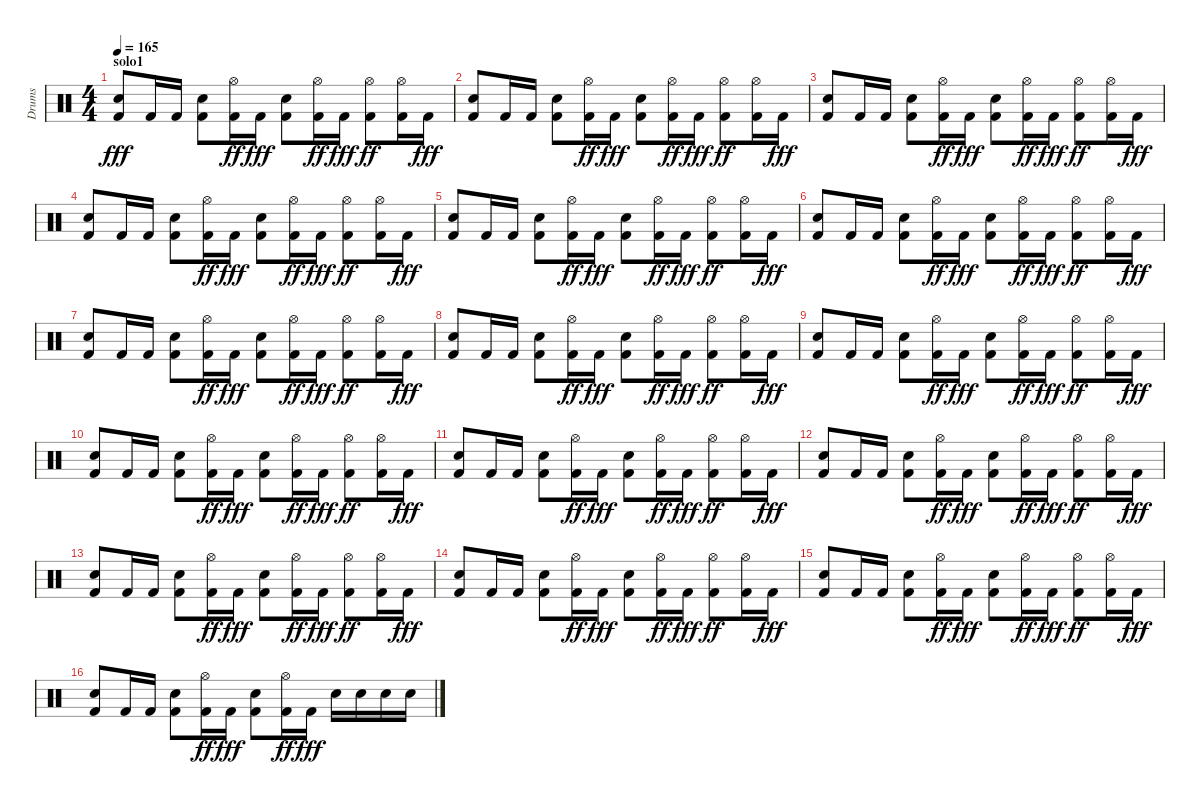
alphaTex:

\track ("Drums" "Drums") {instrument percussion}
\staff {score}
\articulation defaults
\ts (4 4)
\section ("" "solo1")
\tempo 165
\clef neutral
\ks c
("Kick (hit) 2" "Electric Snare (hit)").8{dy fff} "Kick (hit) 2".16 "Kick (hit) 2".16 ("Kick (hit) 2" "Electric Snare (hit)").8 ("Kick (hit) 2" "Hi-Hat (open)").16{dy ff} "Kick (hit) 2".16{dy fff} ("Kick (hit) 2" "Electric Snare (hit)").8 ("Kick (hit) 2" "Hi-Hat (open)").16{dy ff} "Kick (hit) 2".16{dy fff} ("Kick (hit) 2" "Hi-Hat (open)").8{dy ff} ("Kick (hit) 2" "Hi-Hat (open)").16 "Kick (hit) 2".16{dy fff} |
("Kick (hit) 2" "Electric Snare (hit)").8 "Kick (hit) 2".16 "Kick (hit) 2".16 ("Kick (hit) 2" "Electric Snare (hit)").8 ("Kick (hit) 2" "Hi-Hat (open)").16{dy ff} "Kick (hit) 2".16{dy fff} ("Kick (hit) 2" "Electric Snare (hit)").8 ("Kick (hit) 2" "Hi-Hat (open)").16{dy ff} "Kick (hit) 2".16{dy fff} ("Kick (hit) 2" "Hi-Hat (open)").8{dy ff} ("Kick (hit) 2" "Hi-Hat (open)").16 "Kick (hit) 2".16{dy fff} |
("Kick (hit) 2" "Electric Snare (hit)").8 "Kick (hit) 2".16 "Kick (hit) 2".16 ("Kick (hit) 2" "Electric Snare (hit)").8 ("Kick (hit) 2" "Hi-Hat (open)").16{dy ff} "Kick (hit) 2".16{dy fff} ("Kick (hit) 2" "Electric Snare (hit)").8 ("Kick (hit) 2" "Hi-Hat (open)").16{dy ff} "Kick (hit) 2".16{dy fff} ("Kick (hit) 2" "Hi-Hat (open)").8{dy ff} ("Kick (hit) 2" "Hi-Hat (open)").16 "Kick (hit) 2".16{dy fff} |
("Kick (hit) 2" "Electric Snare (hit)").8 "Kick (hit) 2".16 "Kick (hit) 2".16 ("Kick (hit) 2" "Electric Snare (hit)").8 ("Kick (hit) 2" "Hi-Hat (open)").16{dy ff} "Kick (hit) 2".16{dy fff} ("Kick (hit) 2" "Electric Snare (hit)").8 ("Kick (hit) 2" "Hi-Hat (open)").16{dy ff} "Kick (hit) 2".16{dy fff} ("Kick (hit) 2" "Hi-Hat (open)").8{dy ff} ("Kick (hit) 2" "Hi-Hat (open)").16 "Kick (hit) 2".16{dy fff} |
("Kick (hit) 2" "Electric Snare (hit)").8 "Kick (hit) 2".16 "Kick (hit) 2".16 ("Kick (hit) 2" "Electric Snare (hit)").8 ("Kick (hit) 2" "Hi-Hat (open)").16{dy ff} "Kick (hit) 2".16{dy fff} ("Kick (hit) 2" "Electric Snare (hit)").8 ("Kick (hit) 2" "Hi-Hat (open)").16{dy ff} "Kick (hit) 2".16{dy fff} ("Kick (hit) 2" "Hi-Hat (open)").8{dy ff} ("Kick (hit) 2" "Hi-Hat (open)").16 "Kick (hit) 2".16{dy fff} |
("Kick (hit) 2" "Electric Snare (hit)").8 "Kick (hit) 2".16 "Kick (hit) 2".16 ("Kick (hit) 2" "Electric Snare (hit)").8 ("Kick (hit) 2" "Hi-Hat (open)").16{dy ff} "Kick (hit) 2".16{dy fff} ("Kick (hit) 2" "Electric Snare (hit)").8 ("Kick (hit) 2" "Hi-Hat (open)").16{dy ff} "Kick (hit) 2".16{dy fff} ("Kick (hit) 2" "Hi-Hat (open)").8{dy ff} ("Kick (hit) 2" "Hi-Hat (open)").16 "Kick (hit) 2".16{dy fff} |
("Kick (hit) 2" "Electric Snare (hit)").8 "Kick (hit) 2".16 "Kick (hit) 2".16 ("Kick (hit) 2" "Electric Snare (hit)").8 ("Kick (hit) 2" "Hi-Hat (open)").16{dy ff} "Kick (hit) 2".16{dy fff} ("Kick (hit) 2" "Electric Snare (hit)").8 ("Kick (hit) 2" "Hi-Hat (open)").16{dy ff} "Kick (hit) 2".16{dy fff} ("Kick (hit) 2" "Hi-Hat (open)").8{dy ff} ("Kick (hit) 2" "Hi-Hat (open)").16 "Kick (hit) 2".16{dy fff} |
("Kick (hit) 2" "Electric Snare (hit)").8 "Kick (hit) 2".16 "Kick (hit) 2".16 ("Kick (hit) 2" "Electric Snare (hit)").8 ("Kick (hit) 2" "Hi-Hat (open)").16{dy ff} "Kick (hit) 2".16{dy fff} ("Kick (hit) 2" "Electric Snare (hit)").8 ("Kick (hit) 2" "Hi-Hat (open)").16{dy ff} "Kick (hit) 2".16{dy fff} ("Kick (hit) 2" "Hi-Hat (open)").8{dy ff} ("Kick (hit) 2" "Hi-Hat (open)").16 "Kick (hit) 2".16{dy fff} |
("Kick (hit) 2" "Electric Snare (hit)").8 "Kick (hit) 2".16 "Kick (hit) 2".16 ("Kick (hit) 2" "Electric Snare (hit)").8 ("Kick (hit) 2" "Hi-Hat (open)").16{dy ff} "Kick (hit) 2".16{dy fff} ("Kick (hit) 2" "Electric Snare (hit)").8 ("Kick (hit) 2" "Hi-Hat (open)").16{dy ff} "Kick (hit) 2".16{dy fff} ("Kick (hit) 2" "Hi-Hat (open)").8{dy ff} ("Kick (hit) 2" "Hi-Hat (open)").16 "Kick (hit) 2".16{dy fff} |
("Kick (hit) 2" "Electric Snare (hit)").8 "Kick (hit) 2".16 "Kick (hit) 2".16 ("Kick (hit) 2" "Electric Snare (hit)").8 ("Kick (hit) 2" "Hi-Hat (open)").16{dy ff} "Kick (hit) 2".16{dy fff} ("Kick (hit) 2" "Electric Snare (hit)").8 ("Kick (hit) 2" "Hi-Hat (open)").16{dy ff} "Kick (hit) 2".16{dy fff} ("Kick (hit) 2" "Hi-Hat (open)").8{dy ff} ("Kick (hit) 2" "Hi-Hat (open)").16 "Kick (hit) 2".16{dy fff} |
("Kick (hit) 2" "Electric Snare (hit)").8 "Kick (hit) 2".16 "Kick (hit) 2".16 ("Kick (hit) 2" "Electric Snare (hit)").8 ("Kick (hit) 2" "Hi-Hat (open)").16{dy ff} "Kick (hit) 2".16{dy fff} ("Kick (hit) 2" "Electric Snare (hit)").8 ("Kick (hit) 2" "Hi-Hat (open)").16{dy ff} "Kick (hit) 2".16{dy fff} ("Kick (hit) 2" "Hi-Hat (open)").8{dy ff} ("Kick (hit) 2" "Hi-Hat (open)").16 "Kick (hit) 2".16{dy fff} |
("Kick (hit) 2" "Electric Snare (hit)").8 "Kick (hit) 2".16 "Kick (hit) 2".16 ("Kick (hit) 2" "Electric Snare (hit)").8 ("Kick (hit) 2" "Hi-Hat (open)").16{dy ff} "Kick (hit) 2".16{dy fff} ("Kick (hit) 2" "Electric Snare (hit)").8 ("Kick (hit) 2" "Hi-Hat (open)").16{dy ff} "Kick (hit) 2".16{dy fff} ("Kick (hit) 2" "Hi-Hat (open)").8{dy ff} ("Kick (hit) 2" "Hi-Hat (open)").16 "Kick (hit) 2".16{dy fff} |
("Kick (hit) 2" "Electric Snare (hit)").8 "Kick (hit) 2".16 "Kick (hit) 2".16 ("Kick (hit) 2" "Electric Snare (hit)").8 ("Kick (hit) 2" "Hi-Hat (open)").16{dy ff} "Kick (hit) 2".16{dy fff} ("Kick (hit) 2" "Electric Snare (hit)").8 ("Kick (hit) 2" "Hi-Hat (open)").16{dy ff} "Kick (hit) 2".16{dy fff} ("Kick (hit) 2" "Hi-Hat (open)").8{dy ff} ("Kick (hit) 2" "Hi-Hat (open)").16 "Kick (hit) 2".16{dy fff} |
("Kick (hit) 2" "Electric Snare (hit)").8 "Kick (hit) 2".16 "Kick (hit) 2".16 ("Kick (hit) 2" "Electric Snare (hit)").8 ("Kick (hit) 2" "Hi-Hat (open)").16{dy ff} "Kick (hit) 2".16{dy fff} ("Kick (hit) 2" "Electric Snare (hit)").8 ("Kick (hit) 2" "Hi-Hat (open)").16{dy ff} "Kick (hit) 2".16{dy fff} ("Kick (hit) 2" "Hi-Hat (open)").8{dy ff} ("Kick (hit) 2" "Hi-Hat (open)").16 "Kick (hit) 2".16{dy fff} |
("Kick (hit) 2" "Electric Snare (hit)").8 "Kick (hit) 2".16 "Kick (hit) 2".16 ("Kick (hit) 2" "Electric Snare (hit)").8 ("Kick (hit) 2" "Hi-Hat (open)").16{dy ff} "Kick (hit) 2".16{dy fff} ("Kick (hit) 2" "Electric Snare (hit)").8 ("Kick (hit) 2" "Hi-Hat (open)").16{dy ff} "Kick (hit) 2".16{dy fff} ("Kick (hit) 2" "Hi-Hat (open)").8{dy ff} ("Kick (hit) 2" "Hi-Hat (open)").16 "Kick (hit) 2".16{dy fff} |
("Kick (hit) 2" "Electric Snare (hit)").8 "Kick (hit) 2".16 "Kick (hit) 2".16 ("Kick (hit) 2" "Electric Snare (hit)").8 ("Kick (hit) 2" "Hi-Hat (open)").16{dy ff} "Kick (hit) 2".16{dy fff} ("Kick (hit) 2" "Electric Snare (hit)").8 ("Kick (hit) 2" "Hi-Hat (open)").16{dy ff} "Kick (hit) 2".16{dy fff} "Electric Snare (hit)".16 "Electric Snare (hit)".16 "Electric Snare (hit)".16 "Electric Snare (hit)".16
